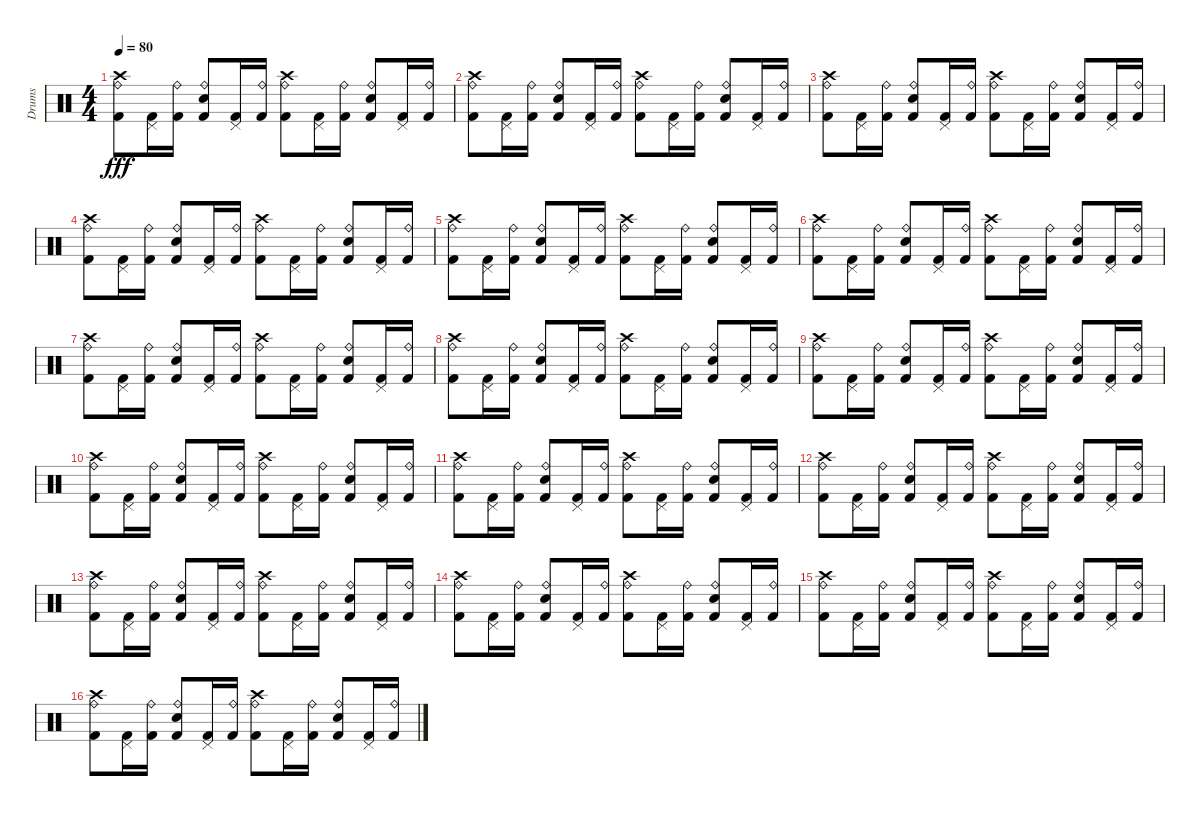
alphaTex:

\track ("Drums" "Drums") {instrument percussion}
\staff {score}
\articulation defaults
\ts (4 4)
\tempo 80
\clef neutral
\ks c
("Crash high (hit)" "Ride (bell)" "Kick (hit) 2").8{dy fff} ("Pedal Hi-Hat (hit)" "Kick (hit) 2").16 ("Ride (bell)" "Kick (hit) 2").16 ("Ride (bell)" "Electric Snare (hit)" "Kick (hit) 2").8 ("Pedal Hi-Hat (hit)" "Kick (hit) 2").16 ("Ride (bell)" "Kick (hit) 2").16 ("Crash high (hit)" "Ride (bell)" "Kick (hit) 2").8 ("Pedal Hi-Hat (hit)" "Kick (hit) 2").16 ("Ride (bell)" "Kick (hit) 2").16 ("Ride (bell)" "Electric Snare (hit)" "Kick (hit) 2").8 ("Pedal Hi-Hat (hit)" "Kick (hit) 2").16 ("Ride (bell)" "Kick (hit) 2").16 |
("Crash high (hit)" "Ride (bell)" "Kick (hit) 2").8 ("Pedal Hi-Hat (hit)" "Kick (hit) 2").16 ("Ride (bell)" "Kick (hit) 2").16 ("Ride (bell)" "Electric Snare (hit)" "Kick (hit) 2").8 ("Pedal Hi-Hat (hit)" "Kick (hit) 2").16 ("Ride (bell)" "Kick (hit) 2").16 ("Crash high (hit)" "Ride (bell)" "Kick (hit) 2").8 ("Pedal Hi-Hat (hit)" "Kick (hit) 2").16 ("Ride (bell)" "Kick (hit) 2").16 ("Ride (bell)" "Electric Snare (hit)" "Kick (hit) 2").8 ("Pedal Hi-Hat (hit)" "Kick (hit) 2").16 ("Ride (bell)" "Kick (hit) 2").16 |
("Crash high (hit)" "Ride (bell)" "Kick (hit) 2").8 ("Pedal Hi-Hat (hit)" "Kick (hit) 2").16 ("Ride (bell)" "Kick (hit) 2").16 ("Ride (bell)" "Electric Snare (hit)" "Kick (hit) 2").8 ("Pedal Hi-Hat (hit)" "Kick (hit) 2").16 ("Ride (bell)" "Kick (hit) 2").16 ("Crash high (hit)" "Ride (bell)" "Kick (hit) 2").8 ("Pedal Hi-Hat (hit)" "Kick (hit) 2").16 ("Ride (bell)" "Kick (hit) 2").16 ("Ride (bell)" "Electric Snare (hit)" "Kick (hit) 2").8 ("Pedal Hi-Hat (hit)" "Kick (hit) 2").16 ("Ride (bell)" "Kick (hit) 2").16 |
("Crash high (hit)" "Ride (bell)" "Kick (hit) 2").8 ("Pedal Hi-Hat (hit)" "Kick (hit) 2").16 ("Ride (bell)" "Kick (hit) 2").16 ("Ride (bell)" "Electric Snare (hit)" "Kick (hit) 2").8 ("Pedal Hi-Hat (hit)" "Kick (hit) 2").16 ("Ride (bell)" "Kick (hit) 2").16 ("Crash high (hit)" "Ride (bell)" "Kick (hit) 2").8 ("Pedal Hi-Hat (hit)" "Kick (hit) 2").16 ("Ride (bell)" "Kick (hit) 2").16 ("Ride (bell)" "Electric Snare (hit)" "Kick (hit) 2").8 ("Pedal Hi-Hat (hit)" "Kick (hit) 2").16 ("Ride (bell)" "Kick (hit) 2").16 |
("Crash high (hit)" "Ride (bell)" "Kick (hit) 2").8 ("Pedal Hi-Hat (hit)" "Kick (hit) 2").16 ("Ride (bell)" "Kick (hit) 2").16 ("Ride (bell)" "Electric Snare (hit)" "Kick (hit) 2").8 ("Pedal Hi-Hat (hit)" "Kick (hit) 2").16 ("Ride (bell)" "Kick (hit) 2").16 ("Crash high (hit)" "Ride (bell)" "Kick (hit) 2").8 ("Pedal Hi-Hat (hit)" "Kick (hit) 2").16 ("Ride (bell)" "Kick (hit) 2").16 ("Ride (bell)" "Electric Snare (hit)" "Kick (hit) 2").8 ("Pedal Hi-Hat (hit)" "Kick (hit) 2").16 ("Ride (bell)" "Kick (hit) 2").16 |
("Crash high (hit)" "Ride (bell)" "Kick (hit) 2").8 ("Pedal Hi-Hat (hit)" "Kick (hit) 2").16 ("Ride (bell)" "Kick (hit) 2").16 ("Ride (bell)" "Electric Snare (hit)" "Kick (hit) 2").8 ("Pedal Hi-Hat (hit)" "Kick (hit) 2").16 ("Ride (bell)" "Kick (hit) 2").16 ("Crash high (hit)" "Ride (bell)" "Kick (hit) 2").8 ("Pedal Hi-Hat (hit)" "Kick (hit) 2").16 ("Ride (bell)" "Kick (hit) 2").16 ("Ride (bell)" "Electric Snare (hit)" "Kick (hit) 2").8 ("Pedal Hi-Hat (hit)" "Kick (hit) 2").16 ("Ride (bell)" "Kick (hit) 2").16 |
("Crash high (hit)" "Ride (bell)" "Kick (hit) 2").8 ("Pedal Hi-Hat (hit)" "Kick (hit) 2").16 ("Ride (bell)" "Kick (hit) 2").16 ("Ride (bell)" "Electric Snare (hit)" "Kick (hit) 2").8 ("Pedal Hi-Hat (hit)" "Kick (hit) 2").16 ("Ride (bell)" "Kick (hit) 2").16 ("Crash high (hit)" "Ride (bell)" "Kick (hit) 2").8 ("Pedal Hi-Hat (hit)" "Kick (hit) 2").16 ("Ride (bell)" "Kick (hit) 2").16 ("Ride (bell)" "Electric Snare (hit)" "Kick (hit) 2").8 ("Pedal Hi-Hat (hit)" "Kick (hit) 2").16 ("Ride (bell)" "Kick (hit) 2").16 |
("Crash high (hit)" "Ride (bell)" "Kick (hit) 2").8 ("Pedal Hi-Hat (hit)" "Kick (hit) 2").16 ("Ride (bell)" "Kick (hit) 2").16 ("Ride (bell)" "Electric Snare (hit)" "Kick (hit) 2").8 ("Pedal Hi-Hat (hit)" "Kick (hit) 2").16 ("Ride (bell)" "Kick (hit) 2").16 ("Crash high (hit)" "Ride (bell)" "Kick (hit) 2").8 ("Pedal Hi-Hat (hit)" "Kick (hit) 2").16 ("Ride (bell)" "Kick (hit) 2").16 ("Ride (bell)" "Electric Snare (hit)" "Kick (hit) 2").8 ("Pedal Hi-Hat (hit)" "Kick (hit) 2").16 ("Ride (bell)" "Kick (hit) 2").16 |
("Crash high (hit)" "Ride (bell)" "Kick (hit) 2").8 ("Pedal Hi-Hat (hit)" "Kick (hit) 2").16 ("Ride (bell)" "Kick (hit) 2").16 ("Ride (bell)" "Electric Snare (hit)" "Kick (hit) 2").8 ("Pedal Hi-Hat (hit)" "Kick (hit) 2").16 ("Ride (bell)" "Kick (hit) 2").16 ("Crash high (hit)" "Ride (bell)" "Kick (hit) 2").8 ("Pedal Hi-Hat (hit)" "Kick (hit) 2").16 ("Ride (bell)" "Kick (hit) 2").16 ("Ride (bell)" "Electric Snare (hit)" "Kick (hit) 2").8 ("Pedal Hi-Hat (hit)" "Kick (hit) 2").16 ("Ride (bell)" "Kick (hit) 2").16 |
("Crash high (hit)" "Ride (bell)" "Kick (hit) 2").8 ("Pedal Hi-Hat (hit)" "Kick (hit) 2").16 ("Ride (bell)" "Kick (hit) 2").16 ("Ride (bell)" "Electric Snare (hit)" "Kick (hit) 2").8 ("Pedal Hi-Hat (hit)" "Kick (hit) 2").16 ("Ride (bell)" "Kick (hit) 2").16 ("Crash high (hit)" "Ride (bell)" "Kick (hit) 2").8 ("Pedal Hi-Hat (hit)" "Kick (hit) 2").16 ("Ride (bell)" "Kick (hit) 2").16 ("Ride (bell)" "Electric Snare (hit)" "Kick (hit) 2").8 ("Pedal Hi-Hat (hit)" "Kick (hit) 2").16 ("Ride (bell)" "Kick (hit) 2").16 |
("Crash high (hit)" "Ride (bell)" "Kick (hit) 2").8 ("Pedal Hi-Hat (hit)" "Kick (hit) 2").16 ("Ride (bell)" "Kick (hit) 2").16 ("Ride (bell)" "Electric Snare (hit)" "Kick (hit) 2").8 ("Pedal Hi-Hat (hit)" "Kick (hit) 2").16 ("Ride (bell)" "Kick (hit) 2").16 ("Crash high (hit)" "Ride (bell)" "Kick (hit) 2").8 ("Pedal Hi-Hat (hit)" "Kick (hit) 2").16 ("Ride (bell)" "Kick (hit) 2").16 ("Ride (bell)" "Electric Snare (hit)" "Kick (hit) 2").8 ("Pedal Hi-Hat (hit)" "Kick (hit) 2").16 ("Ride (bell)" "Kick (hit) 2").16 |
("Crash high (hit)" "Ride (bell)" "Kick (hit) 2").8 ("Pedal Hi-Hat (hit)" "Kick (hit) 2").16 ("Ride (bell)" "Kick (hit) 2").16 ("Ride (bell)" "Electric Snare (hit)" "Kick (hit) 2").8 ("Pedal Hi-Hat (hit)" "Kick (hit) 2").16 ("Ride (bell)" "Kick (hit) 2").16 ("Crash high (hit)" "Ride (bell)" "Kick (hit) 2").8 ("Pedal Hi-Hat (hit)" "Kick (hit) 2").16 ("Ride (bell)" "Kick (hit) 2").16 ("Ride (bell)" "Electric Snare (hit)" "Kick (hit) 2").8 ("Pedal Hi-Hat (hit)" "Kick (hit) 2").16 ("Ride (bell)" "Kick (hit) 2").16 |
("Crash high (hit)" "Ride (bell)" "Kick (hit) 2").8 ("Pedal Hi-Hat (hit)" "Kick (hit) 2").16 ("Ride (bell)" "Kick (hit) 2").16 ("Ride (bell)" "Electric Snare (hit)" "Kick (hit) 2").8 ("Pedal Hi-Hat (hit)" "Kick (hit) 2").16 ("Ride (bell)" "Kick (hit) 2").16 ("Crash high (hit)" "Ride (bell)" "Kick (hit) 2").8 ("Pedal Hi-Hat (hit)" "Kick (hit) 2").16 ("Ride (bell)" "Kick (hit) 2").16 ("Ride (bell)" "Electric Snare (hit)" "Kick (hit) 2").8 ("Pedal Hi-Hat (hit)" "Kick (hit) 2").16 ("Ride (bell)" "Kick (hit) 2").16 |
("Crash high (hit)" "Ride (bell)" "Kick (hit) 2").8 ("Pedal Hi-Hat (hit)" "Kick (hit) 2").16 ("Ride (bell)" "Kick (hit) 2").16 ("Ride (bell)" "Electric Snare (hit)" "Kick (hit) 2").8 ("Pedal Hi-Hat (hit)" "Kick (hit) 2").16 ("Ride (bell)" "Kick (hit) 2").16 ("Crash high (hit)" "Ride (bell)" "Kick (hit) 2").8 ("Pedal Hi-Hat (hit)" "Kick (hit) 2").16 ("Ride (bell)" "Kick (hit) 2").16 ("Ride (bell)" "Electric Snare (hit)" "Kick (hit) 2").8 ("Pedal Hi-Hat (hit)" "Kick (hit) 2").16 ("Ride (bell)" "Kick (hit) 2").16 |
("Crash high (hit)" "Ride (bell)" "Kick (hit) 2").8 ("Pedal Hi-Hat (hit)" "Kick (hit) 2").16 ("Ride (bell)" "Kick (hit) 2").16 ("Ride (bell)" "Electric Snare (hit)" "Kick (hit) 2").8 ("Pedal Hi-Hat (hit)" "Kick (hit) 2").16 ("Ride (bell)" "Kick (hit) 2").16 ("Crash high (hit)" "Ride (bell)" "Kick (hit) 2").8 ("Pedal Hi-Hat (hit)" "Kick (hit) 2").16 ("Ride (bell)" "Kick (hit) 2").16 ("Ride (bell)" "Electric Snare (hit)" "Kick (hit) 2").8 ("Pedal Hi-Hat (hit)" "Kick (hit) 2").16 ("Ride (bell)" "Kick (hit) 2").16 |
("Crash high (hit)" "Ride (bell)" "Kick (hit) 2").8 ("Pedal Hi-Hat (hit)" "Kick (hit) 2").16 ("Ride (bell)" "Kick (hit) 2").16 ("Ride (bell)" "Electric Snare (hit)" "Kick (hit) 2").8 ("Pedal Hi-Hat (hit)" "Kick (hit) 2").16 ("Ride (bell)" "Kick (hit) 2").16 ("Crash high (hit)" "Ride (bell)" "Kick (hit) 2").8 ("Pedal Hi-Hat (hit)" "Kick (hit) 2").16 ("Ride (bell)" "Kick (hit) 2").16 ("Ride (bell)" "Electric Snare (hit)" "Kick (hit) 2").8 ("Pedal Hi-Hat (hit)" "Kick (hit) 2").16 ("Ride (bell)" "Kick (hit) 2").16
